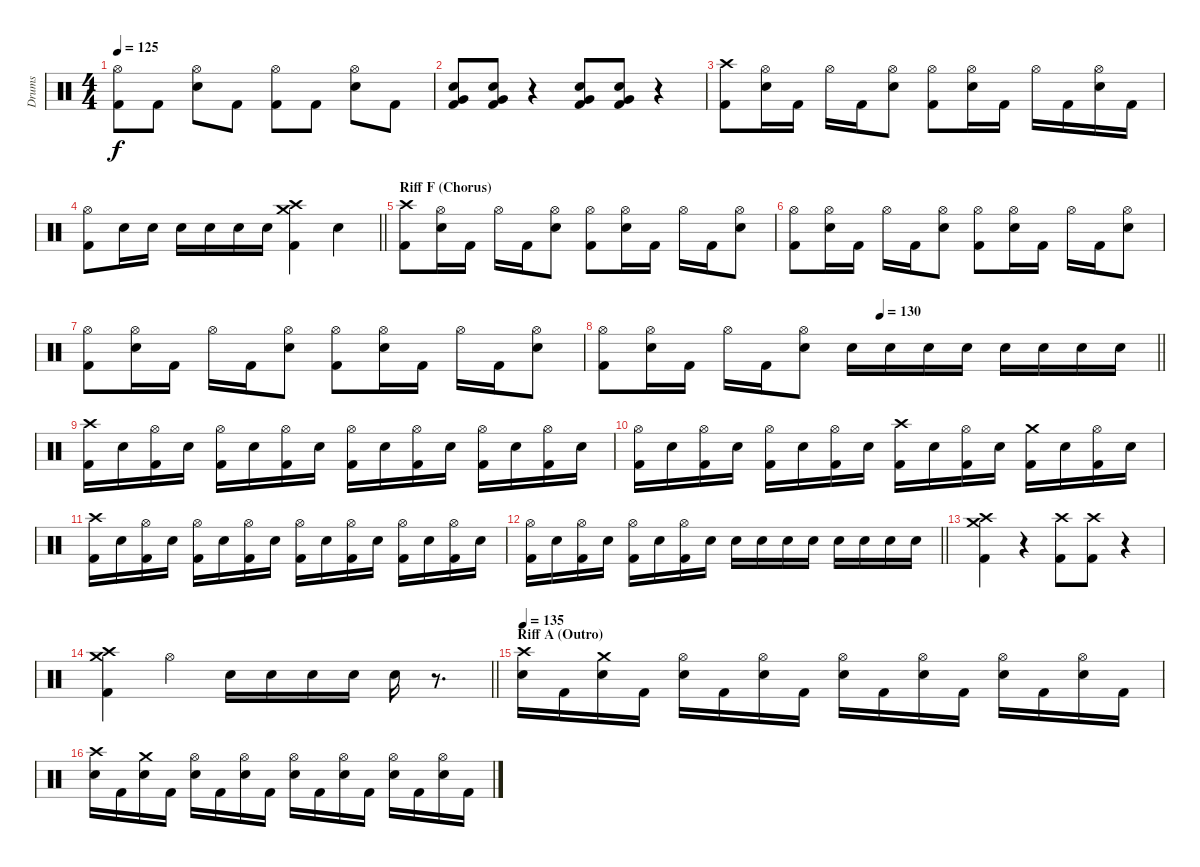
\track ("Drums" "Drums") {instrument percussion}
\staff {score}
\articulation defaults
\ts (4 4)
\tempo 125
\clef neutral
\ks c
("Hi-Hat (open)" "Kick (hit) 2").8{dy f} "Kick (hit) 2".8 ("Hi-Hat (open)" "Snare (hit) 2").8 "Kick (hit) 2".8 ("Hi-Hat (open)" "Kick (hit) 2").8 "Kick (hit) 2".8 ("Hi-Hat (open)" "Snare (hit) 2").8 "Kick (hit) 2".8 |
("Very Low Tom (hit)" "Snare (hit) 2" "Kick (hit) 2").8 ("Very Low Tom (hit)" "Snare (hit) 2" "Kick (hit) 2").8 r.4 ("Very Low Tom (hit)" "Snare (hit) 2" "Kick (hit) 2").8 ("Very Low Tom (hit)" "Snare (hit) 2" "Kick (hit) 2").8 r.4 |
("Crash high (hit)" "Kick (hit) 2").8 ("Hi-Hat (open)" "Snare (hit) 2").16 "Kick (hit) 2".16 "Hi-Hat (open)".16 "Kick (hit) 2".16 ("Hi-Hat (open)" "Snare (hit) 2").8 ("Hi-Hat (open)" "Kick (hit) 2").8 ("Hi-Hat (open)" "Snare (hit) 2").16 "Kick (hit) 2".16 "Hi-Hat (open)".16 "Kick (hit) 2".16 ("Hi-Hat (open)" "Snare (hit) 2").16 "Kick (hit) 2".16 |
\barLineRight lightlight
("Hi-Hat (open)" "Kick (hit) 2").8 "Snare (hit) 2".16 "Snare (hit) 2".16 "Snare (hit) 2".16 "Snare (hit) 2".16 "Snare (hit) 2".16 "Snare (hit) 2".16 ("Crash high (hit)" "Crash medium (hit)" "Kick (hit) 2").4 "Snare (hit) 2".4 |
\section ("" "Riff F (Chorus)")
("Crash high (hit)" "Kick (hit) 2").8 ("Hi-Hat (open)" "Snare (hit) 2").16 "Kick (hit) 2".16 "Hi-Hat (open)".16 "Kick (hit) 2".16 ("Hi-Hat (open)" "Snare (hit) 2").8 ("Hi-Hat (open)" "Kick (hit) 2").8 ("Hi-Hat (open)" "Snare (hit) 2").16 "Kick (hit) 2".16 "Hi-Hat (open)".16 "Kick (hit) 2".16 ("Hi-Hat (open)" "Snare (hit) 2").8 |
("Hi-Hat (open)" "Kick (hit) 2").8 ("Hi-Hat (open)" "Snare (hit) 2").16 "Kick (hit) 2".16 "Hi-Hat (open)".16 "Kick (hit) 2".16 ("Hi-Hat (open)" "Snare (hit) 2").8 ("Hi-Hat (open)" "Kick (hit) 2").8 ("Hi-Hat (open)" "Snare (hit) 2").16 "Kick (hit) 2".16 "Hi-Hat (open)".16 "Kick (hit) 2".16 ("Hi-Hat (open)" "Snare (hit) 2").8 |
("Hi-Hat (open)" "Kick (hit) 2").8 ("Hi-Hat (open)" "Snare (hit) 2").16 "Kick (hit) 2".16 "Hi-Hat (open)".16 "Kick (hit) 2".16 ("Hi-Hat (open)" "Snare (hit) 2").8 ("Hi-Hat (open)" "Kick (hit) 2").8 ("Hi-Hat (open)" "Snare (hit) 2").16 "Kick (hit) 2".16 "Hi-Hat (open)".16 "Kick (hit) 2".16 ("Hi-Hat (open)" "Snare (hit) 2").8 |
\tempo (130 0.5)
\barLineRight lightlight
("Hi-Hat (open)" "Kick (hit) 2").8 ("Hi-Hat (open)" "Snare (hit) 2").16 "Kick (hit) 2".16 "Hi-Hat (open)".16 "Kick (hit) 2".16 ("Hi-Hat (open)" "Snare (hit) 2").8 "Snare (hit) 2".16 "Snare (hit) 2".16 "Snare (hit) 2".16 "Snare (hit) 2".16 "Snare (hit) 2".16 "Snare (hit) 2".16 "Snare (hit) 2".16 "Snare (hit) 2".16 |
("Crash high (hit)" "Kick (hit) 2").16 "Snare (hit) 2".16 ("Hi-Hat (open)" "Kick (hit) 2").16 "Snare (hit) 2".16 ("Hi-Hat (open)" "Kick (hit) 2").16 "Snare (hit) 2".16 ("Hi-Hat (open)" "Kick (hit) 2").16 "Snare (hit) 2".16 ("Hi-Hat (open)" "Kick (hit) 2").16 "Snare (hit) 2".16 ("Hi-Hat (open)" "Kick (hit) 2").16 "Snare (hit) 2".16 ("Hi-Hat (open)" "Kick (hit) 2").16 "Snare (hit) 2".16 ("Hi-Hat (open)" "Kick (hit) 2").16 "Snare (hit) 2".16 |
("Hi-Hat (open)" "Kick (hit) 2").16 "Snare (hit) 2".16 ("Hi-Hat (open)" "Kick (hit) 2").16 "Snare (hit) 2".16 ("Hi-Hat (open)" "Kick (hit) 2").16 "Snare (hit) 2".16 ("Hi-Hat (open)" "Kick (hit) 2").16 "Snare (hit) 2".16 ("Crash high (hit)" "Kick (hit) 2").16 "Snare (hit) 2".16 ("Hi-Hat (open)" "Kick (hit) 2").16 "Snare (hit) 2".16 ("Crash medium (hit)" "Kick (hit) 2").16 "Snare (hit) 2".16 ("Hi-Hat (open)" "Kick (hit) 2").16 "Snare (hit) 2".16 |
("Crash high (hit)" "Kick (hit) 2").16 "Snare (hit) 2".16 ("Hi-Hat (open)" "Kick (hit) 2").16 "Snare (hit) 2".16 ("Hi-Hat (open)" "Kick (hit) 2").16 "Snare (hit) 2".16 ("Hi-Hat (open)" "Kick (hit) 2").16 "Snare (hit) 2".16 ("Hi-Hat (open)" "Kick (hit) 2").16 "Snare (hit) 2".16 ("Hi-Hat (open)" "Kick (hit) 2").16 "Snare (hit) 2".16 ("Hi-Hat (open)" "Kick (hit) 2").16 "Snare (hit) 2".16 ("Hi-Hat (open)" "Kick (hit) 2").16 "Snare (hit) 2".16 |
\barLineRight lightlight
("Hi-Hat (open)" "Kick (hit) 2").16 "Snare (hit) 2".16 ("Hi-Hat (open)" "Kick (hit) 2").16 "Snare (hit) 2".16 ("Hi-Hat (open)" "Kick (hit) 2").16 "Snare (hit) 2".16 ("Hi-Hat (open)" "Kick (hit) 2").16 "Snare (hit) 2".16 "Snare (hit) 2".16 "Snare (hit) 2".16 "Snare (hit) 2".16 "Snare (hit) 2".16 "Snare (hit) 2".16 "Snare (hit) 2".16 "Snare (hit) 2".16 "Snare (hit) 2".16 |
("Crash high (hit)" "Crash medium (hit)" "Kick (hit) 2").4 r.4 ("Crash high (hit)" "Kick (hit) 2").8 ("Crash high (hit)" "Kick (hit) 2").8 r.4 |
\barLineRight lightlight
("Crash high (hit)" "Crash medium (hit)" "Kick (hit) 2").4 "Hi-Hat (open)".4 "Snare (hit) 2".16 "Snare (hit) 2".16 "Snare (hit) 2".16 "Snare (hit) 2".16 "Snare (hit) 2".16 r.8{d} |
\section ("" "Riff A (Outro)")
\tempo 135
("Crash high (hit)" "Snare (hit) 2").16 "Kick (hit) 2".16 ("Crash medium (hit)" "Snare (hit) 2").16 "Kick (hit) 2".16 ("Hi-Hat (open)" "Snare (hit) 2").16 "Kick (hit) 2".16 ("Hi-Hat (open)" "Snare (hit) 2").16 "Kick (hit) 2".16 ("Hi-Hat (open)" "Snare (hit) 2").16 "Kick (hit) 2".16 ("Hi-Hat (open)" "Snare (hit) 2").16 "Kick (hit) 2".16 ("Hi-Hat (open)" "Snare (hit) 2").16 "Kick (hit) 2".16 ("Hi-Hat (open)" "Snare (hit) 2").16 "Kick (hit) 2".16 |
("Crash high (hit)" "Snare (hit) 2").16 "Kick (hit) 2".16 ("Crash medium (hit)" "Snare (hit) 2").16 "Kick (hit) 2".16 ("Hi-Hat (open)" "Snare (hit) 2").16 "Kick (hit) 2".16 ("Hi-Hat (open)" "Snare (hit) 2").16 "Kick (hit) 2".16 ("Hi-Hat (open)" "Snare (hit) 2").16 "Kick (hit) 2".16 ("Hi-Hat (open)" "Snare (hit) 2").16 "Kick (hit) 2".16 ("Hi-Hat (open)" "Snare (hit) 2").16 "Kick (hit) 2".16 ("Hi-Hat (open)" "Snare (hit) 2").16 "Kick (hit) 2".16
